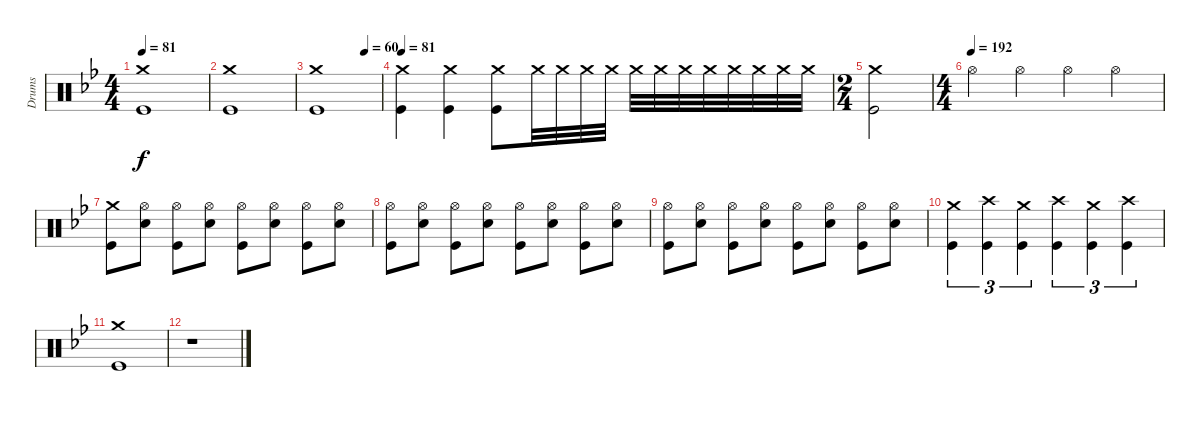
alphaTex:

\track ("Drums" "Drums") {instrument percussion}
\staff {score}
\articulation defaults
\ts (4 4)
\tempo 81
\clef neutral
\ks gminor
("Crash medium (hit)" "Kick (hit)").1{dy f} |
("Crash medium (hit)" "Kick (hit)").1 |
\tempo (60 0.75)
("Crash medium (hit)" "Kick (hit)").1 |
\tempo 81
("Crash medium (hit)" "Kick (hit)").4 ("Crash medium (hit)" "Kick (hit)").4 ("Crash medium (hit)" "Kick (hit)").8 "Crash medium (hit)".32 "Crash medium (hit)".32 "Crash medium (hit)".32 "Crash medium (hit)".32 "Crash medium (hit)".32 "Crash medium (hit)".32 "Crash medium (hit)".32 "Crash medium (hit)".32 "Crash medium (hit)".32 "Crash medium (hit)".32 "Crash medium (hit)".32 "Crash medium (hit)".32 |
\ts (2 4)
("Crash medium (hit)" "Kick (hit)").2 |
\ts (4 4)
\tempo (192)
"Hi-Hat (open)".4 "Hi-Hat (open)".4 "Hi-Hat (open)".4 "Hi-Hat (open)".4 |
("Crash medium (hit)" "Kick (hit)").8 ("Hi-Hat (open)" "Electric Snare (hit)").8 ("Hi-Hat (open)" "Kick (hit)").8 ("Hi-Hat (open)" "Electric Snare (hit)").8 ("Hi-Hat (open)" "Kick (hit)").8 ("Hi-Hat (open)" "Electric Snare (hit)").8 ("Hi-Hat (open)" "Kick (hit)").8 ("Hi-Hat (open)" "Electric Snare (hit)").8 |
("Hi-Hat (open)" "Kick (hit)").8 ("Hi-Hat (open)" "Electric Snare (hit)").8 ("Hi-Hat (open)" "Kick (hit)").8 ("Hi-Hat (open)" "Electric Snare (hit)").8 ("Hi-Hat (open)" "Kick (hit)").8 ("Hi-Hat (open)" "Electric Snare (hit)").8 ("Hi-Hat (open)" "Kick (hit)").8 ("Hi-Hat (open)" "Electric Snare (hit)").8 |
("Hi-Hat (open)" "Kick (hit)").8 ("Hi-Hat (open)" "Electric Snare (hit)").8 ("Hi-Hat (open)" "Kick (hit)").8 ("Hi-Hat (open)" "Electric Snare (hit)").8 ("Hi-Hat (open)" "Kick (hit)").8 ("Hi-Hat (open)" "Electric Snare (hit)").8 ("Hi-Hat (open)" "Kick (hit)").8 ("Hi-Hat (open)" "Electric Snare (hit)").8 |
("Crash medium (hit)" "Kick (hit)").4{tu (3 2)} ("Crash high (hit)" "Kick (hit)").4{tu (3 2)} ("Crash medium (hit)" "Kick (hit)").4{tu (3 2)} ("Crash high (hit)" "Kick (hit)").4{tu (3 2)} ("Crash medium (hit)" "Kick (hit)").4{tu (3 2)} ("Crash high (hit)" "Kick (hit)").4{tu (3 2)} |
("Crash medium (hit)" "Kick (hit)").1 |
r.1
